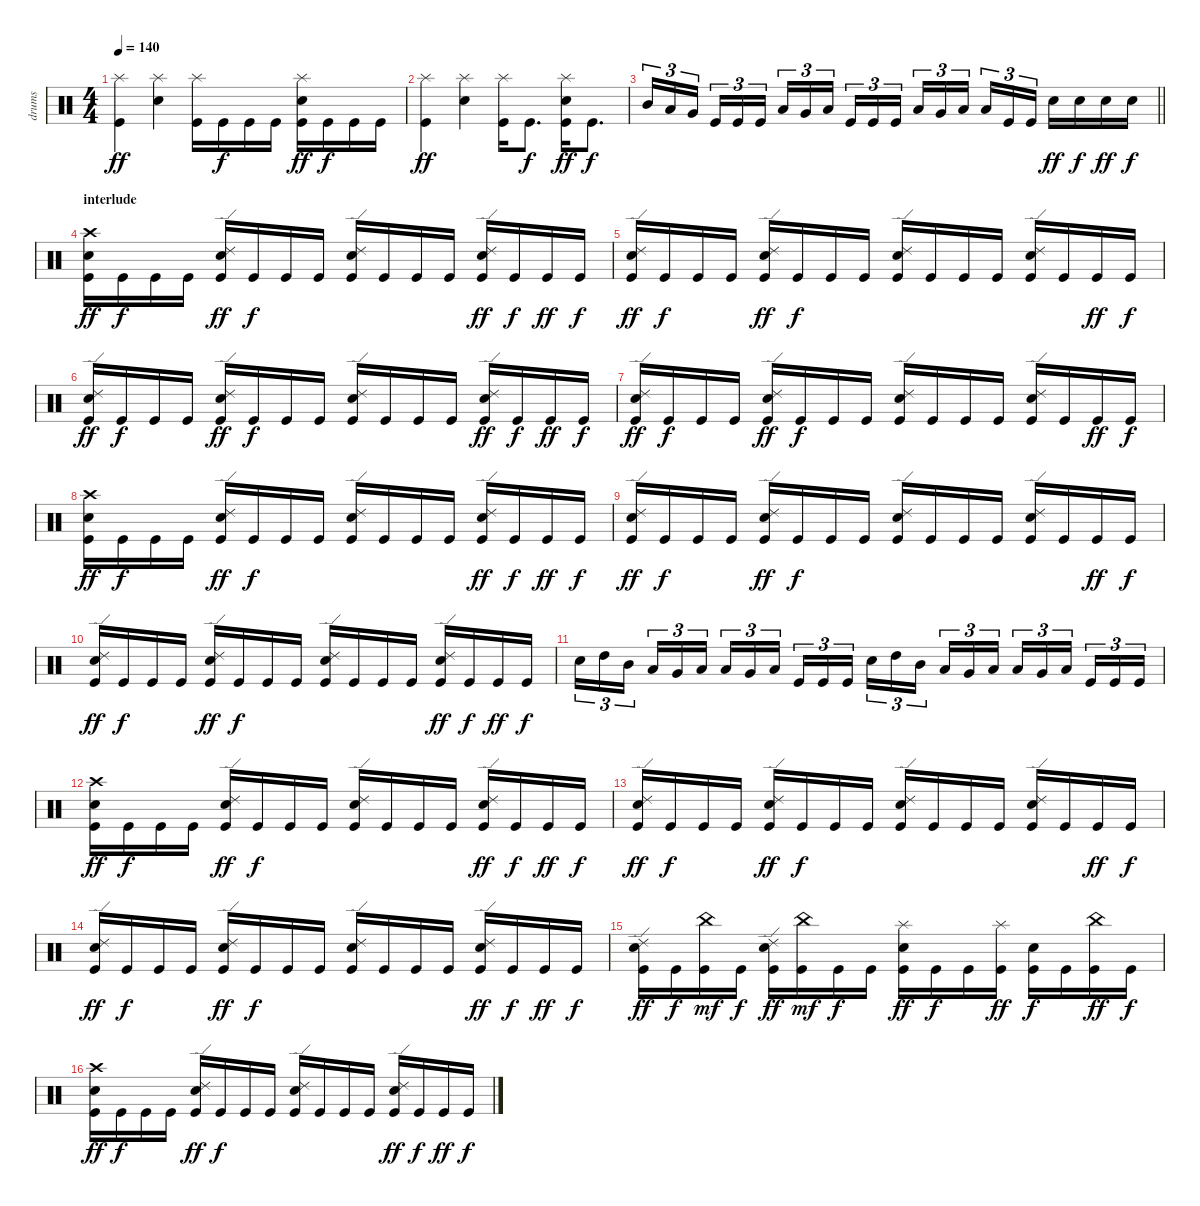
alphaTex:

\track ("drums" "drums") {instrument percussion}
\staff {score}
\articulation defaults
\ts (4 4)
\tempo 140
\clef neutral
\ks c
("Splash (hit)" "Kick (hit)").4{dy ff} ("Splash (hit)" "Electric Snare (hit)").4 ("Splash (hit)" "Kick (hit)").16 "Kick (hit)".16{dy f} "Kick (hit)".16 "Kick (hit)".16 ("Splash (hit)" "Electric Snare (hit)" "Kick (hit)").16{dy ff} "Kick (hit)".16{dy f} "Kick (hit)".16 "Kick (hit)".16 |
("Splash (hit)" "Kick (hit)").4{dy ff} ("Splash (hit)" "Electric Snare (hit)").4 ("Splash (hit)" "Kick (hit)").16 "Kick (hit)".8{d dy f} ("Splash (hit)" "Electric Snare (hit)" "Kick (hit)").16{dy ff} "Kick (hit)".8{d dy f} |
\barLineRight lightlight "Mid Tom (hit)".16{tu (3 2)} "Low Tom (hit)".16{tu (3 2)} "Very Low Tom (hit)".16{tu (3 2) beam splitsecondary} "Kick (hit)".16{tu (3 2)} "Kick (hit)".16{tu (3 2)} "Kick (hit)".16{tu (3 2)} "Low Tom (hit)".16{tu (3 2)} "Very Low Tom (hit)".16{tu (3 2)} "Low Floor Tom (hit)".16{tu (3 2) beam splitsecondary} "Kick (hit)".16{tu (3 2)} "Kick (hit)".16{tu (3 2)} "Kick (hit)".16{tu (3 2)} "Low Tom (hit)".16{tu (3 2)} "Very Low Tom (hit)".16{tu (3 2)} "Low Floor Tom (hit)".16{tu (3 2) beam splitsecondary} "Low Floor Tom (hit)".16{tu (3 2)} "Kick (hit)".16{tu (3 2)} "Kick (hit)".16{tu (3 2)} "Electric Snare (hit)".16{dy ff} "Electric Snare (hit)".16{dy f} "Electric Snare (hit)".16{dy ff} "Electric Snare (hit)".16{dy f}
|
\section ("" "interlude")
("Crash high (hit)" "Electric Snare (hit)" "Kick (hit)").16{dy ff} "Kick (hit)".16{dy f} "Kick (hit)".16 "Kick (hit)".16 ("Ride (edge) 2" "Electric Snare (hit)" "Kick (hit)").16{dy ff} "Kick (hit)".16{dy f} "Kick (hit)".16 "Kick (hit)".16 ("Ride (edge) 2" "Electric Snare (hit)" "Kick (hit)").16 "Kick (hit)".16 "Kick (hit)".16 "Kick (hit)".16 ("Ride (edge) 2" "Electric Snare (hit)" "Kick (hit)").16{dy ff} "Kick (hit)".16{dy f} "Kick (hit)".16{dy ff} "Kick (hit)".16{dy f} |
("Ride (edge) 2" "Electric Snare (hit)" "Kick (hit)").16{dy ff} "Kick (hit)".16{dy f} "Kick (hit)".16 "Kick (hit)".16 ("Ride (edge) 2" "Electric Snare (hit)" "Kick (hit)").16{dy ff} "Kick (hit)".16{dy f} "Kick (hit)".16 "Kick (hit)".16 ("Ride (edge) 2" "Electric Snare (hit)" "Kick (hit)").16 "Kick (hit)".16 "Kick (hit)".16 "Kick (hit)".16 ("Ride (edge) 2" "Electric Snare (hit)" "Kick (hit)").16 "Kick (hit)".16 "Kick (hit)".16{dy ff} "Kick (hit)".16{dy f} |
("Ride (edge) 2" "Electric Snare (hit)" "Kick (hit)").16{dy ff} "Kick (hit)".16{dy f} "Kick (hit)".16 "Kick (hit)".16 ("Ride (edge) 2" "Electric Snare (hit)" "Kick (hit)").16{dy ff} "Kick (hit)".16{dy f} "Kick (hit)".16 "Kick (hit)".16 ("Ride (edge) 2" "Electric Snare (hit)" "Kick (hit)").16 "Kick (hit)".16 "Kick (hit)".16 "Kick (hit)".16 ("Ride (edge) 2" "Electric Snare (hit)" "Kick (hit)").16{dy ff} "Kick (hit)".16{dy f} "Kick (hit)".16{dy ff} "Kick (hit)".16{dy f} |
("Ride (edge) 2" "Electric Snare (hit)" "Kick (hit)").16{dy ff} "Kick (hit)".16{dy f} "Kick (hit)".16 "Kick (hit)".16 ("Ride (edge) 2" "Electric Snare (hit)" "Kick (hit)").16{dy ff} "Kick (hit)".16{dy f} "Kick (hit)".16 "Kick (hit)".16 ("Ride (edge) 2" "Electric Snare (hit)" "Kick (hit)").16 "Kick (hit)".16 "Kick (hit)".16 "Kick (hit)".16 ("Ride (edge) 2" "Electric Snare (hit)" "Kick (hit)").16 "Kick (hit)".16 "Kick (hit)".16{dy ff} "Kick (hit)".16{dy f} |
("Crash high (hit)" "Electric Snare (hit)" "Kick (hit)").16{dy ff} "Kick (hit)".16{dy f} "Kick (hit)".16 "Kick (hit)".16 ("Ride (edge) 2" "Electric Snare (hit)" "Kick (hit)").16{dy ff} "Kick (hit)".16{dy f} "Kick (hit)".16 "Kick (hit)".16 ("Ride (edge) 2" "Electric Snare (hit)" "Kick (hit)").16 "Kick (hit)".16 "Kick (hit)".16 "Kick (hit)".16 ("Ride (edge) 2" "Electric Snare (hit)" "Kick (hit)").16{dy ff} "Kick (hit)".16{dy f} "Kick (hit)".16{dy ff} "Kick (hit)".16{dy f} |
("Ride (edge) 2" "Electric Snare (hit)" "Kick (hit)").16{dy ff} "Kick (hit)".16{dy f} "Kick (hit)".16 "Kick (hit)".16 ("Ride (edge) 2" "Electric Snare (hit)" "Kick (hit)").16{dy ff} "Kick (hit)".16{dy f} "Kick (hit)".16 "Kick (hit)".16 ("Ride (edge) 2" "Electric Snare (hit)" "Kick (hit)").16 "Kick (hit)".16 "Kick (hit)".16 "Kick (hit)".16 ("Ride (edge) 2" "Electric Snare (hit)" "Kick (hit)").16 "Kick (hit)".16 "Kick (hit)".16{dy ff} "Kick (hit)".16{dy f} |
("Ride (edge) 2" "Electric Snare (hit)" "Kick (hit)").16{dy ff} "Kick (hit)".16{dy f} "Kick (hit)".16 "Kick (hit)".16 ("Ride (edge) 2" "Electric Snare (hit)" "Kick (hit)").16{dy ff} "Kick (hit)".16{dy f} "Kick (hit)".16 "Kick (hit)".16 ("Ride (edge) 2" "Electric Snare (hit)" "Kick (hit)").16 "Kick (hit)".16 "Kick (hit)".16 "Kick (hit)".16 ("Ride (edge) 2" "Electric Snare (hit)" "Kick (hit)").16{dy ff} "Kick (hit)".16{dy f} "Kick (hit)".16{dy ff} "Kick (hit)".16{dy f} |
"Electric Snare (hit)".16{tu (3 2)} "High Tom (hit)".16{tu (3 2)} "Mid Tom (hit)".16{tu (3 2) beam splitsecondary} "Low Tom (hit)".16{tu (3 2)} "Very Low Tom (hit)".16{tu (3 2)} "Low Tom (hit)".16{tu (3 2)} "Low Tom (hit)".16{tu (3 2)} "Very Low Tom (hit)".16{tu (3 2)} "Low Floor Tom (hit)".16{tu (3 2) beam splitsecondary} "Kick (hit)".16{tu (3 2)} "Kick (hit)".16{tu (3 2)} "Kick (hit)".16{tu (3 2)} "Electric Snare (hit)".16{tu (3 2)} "High Tom (hit)".16{tu (3 2)} "Mid Tom (hit)".16{tu (3 2) beam splitsecondary} "Low Tom (hit)".16{tu (3 2)} "Very Low Tom (hit)".16{tu (3 2)} "Low Tom (hit)".16{tu (3 2)} "Low Tom (hit)".16{tu (3 2)} "Very Low Tom (hit)".16{tu (3 2)} "Low Floor Tom (hit)".16{tu (3 2) beam splitsecondary} "Kick (hit)".16{tu (3 2)} "Kick (hit)".16{tu (3 2)} "Kick (hit)".16{tu (3 2)} |
("Crash high (hit)" "Electric Snare (hit)" "Kick (hit)").16{dy ff} "Kick (hit)".16{dy f} "Kick (hit)".16 "Kick (hit)".16 ("Ride (edge) 2" "Electric Snare (hit)" "Kick (hit)").16{dy ff} "Kick (hit)".16{dy f} "Kick (hit)".16 "Kick (hit)".16 ("Ride (edge) 2" "Electric Snare (hit)" "Kick (hit)").16 "Kick (hit)".16 "Kick (hit)".16 "Kick (hit)".16 ("Ride (edge) 2" "Electric Snare (hit)" "Kick (hit)").16{dy ff} "Kick (hit)".16{dy f} "Kick (hit)".16{dy ff} "Kick (hit)".16{dy f} |
("Ride (edge) 2" "Electric Snare (hit)" "Kick (hit)").16{dy ff} "Kick (hit)".16{dy f} "Kick (hit)".16 "Kick (hit)".16 ("Ride (edge) 2" "Electric Snare (hit)" "Kick (hit)").16{dy ff} "Kick (hit)".16{dy f} "Kick (hit)".16 "Kick (hit)".16 ("Ride (edge) 2" "Electric Snare (hit)" "Kick (hit)").16 "Kick (hit)".16 "Kick (hit)".16 "Kick (hit)".16 ("Ride (edge) 2" "Electric Snare (hit)" "Kick (hit)").16 "Kick (hit)".16 "Kick (hit)".16{dy ff} "Kick (hit)".16{dy f} |
("Ride (edge) 2" "Electric Snare (hit)" "Kick (hit)").16{dy ff} "Kick (hit)".16{dy f} "Kick (hit)".16 "Kick (hit)".16 ("Ride (edge) 2" "Electric Snare (hit)" "Kick (hit)").16{dy ff} "Kick (hit)".16{dy f} "Kick (hit)".16 "Kick (hit)".16 ("Ride (edge) 2" "Electric Snare (hit)" "Kick (hit)").16 "Kick (hit)".16 "Kick (hit)".16 "Kick (hit)".16 ("Ride (edge) 2" "Electric Snare (hit)" "Kick (hit)").16{dy ff} "Kick (hit)".16{dy f} "Kick (hit)".16{dy ff} "Kick (hit)".16{dy f} |
("Ride (edge) 2" "Electric Snare (hit)" "Kick (hit)").16{dy ff} "Kick (hit)".16{dy f} ("China (hit)" "Kick (hit)").16{dy mf} "Kick (hit)".16{dy f} ("Ride (edge) 2" "Electric Snare (hit)" "Kick (hit)").16{dy ff} ("China (hit)" "Kick (hit)").16{dy mf} "Kick (hit)".16{dy f} "Kick (hit)".16 ("Splash (hit)" "Electric Snare (hit)" "Kick (hit)").16{dy ff} "Kick (hit)".16{dy f} "Kick (hit)".16 ("Splash (hit)" "Kick (hit)").16{dy ff} ("Electric Snare (hit)" "Kick (hit)").16{dy f} "Kick (hit)".16 ("China (hit)" "Kick (hit)").16{dy ff} "Kick (hit)".16{dy f} |
("Crash high (hit)" "Electric Snare (hit)" "Kick (hit)").16{dy ff} "Kick (hit)".16{dy f} "Kick (hit)".16 "Kick (hit)".16 ("Ride (edge) 2" "Electric Snare (hit)" "Kick (hit)").16{dy ff} "Kick (hit)".16{dy f} "Kick (hit)".16 "Kick (hit)".16 ("Ride (edge) 2" "Electric Snare (hit)" "Kick (hit)").16 "Kick (hit)".16 "Kick (hit)".16 "Kick (hit)".16 ("Ride (edge) 2" "Electric Snare (hit)" "Kick (hit)").16{dy ff} "Kick (hit)".16{dy f} "Kick (hit)".16{dy ff} "Kick (hit)".16{dy f}
